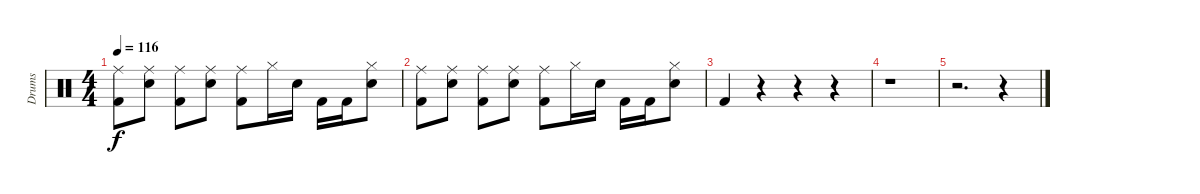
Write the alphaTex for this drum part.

\track ("Drums" "Drums") {instrument percussion}
\staff {score}
\articulation defaults
\ts (4 4)
\tempo 116
\clef neutral
\ks c
("Ride (middle)" "Kick (hit) 2").8{dy f} ("Ride (middle)" "Snare (hit) 2").8 ("Ride (middle)" "Kick (hit) 2").8 ("Ride (middle)" "Snare (hit) 2").8 ("Ride (middle)" "Kick (hit) 2").8 "Hi-Hat (closed)".16 "Snare (hit) 2".16 "Kick (hit) 2".16 "Kick (hit) 2".16 ("Hi-Hat (closed)" "Snare (hit) 2").8 |
("Ride (middle)" "Kick (hit) 2").8 ("Ride (middle)" "Snare (hit) 2").8 ("Ride (middle)" "Kick (hit) 2").8 ("Ride (middle)" "Snare (hit) 2").8 ("Ride (middle)" "Kick (hit) 2").8 "Hi-Hat (closed)".16 "Snare (hit) 2".16 "Kick (hit) 2".16 "Kick (hit) 2".16 ("Hi-Hat (closed)" "Snare (hit) 2").8 |
"Kick (hit) 2".4 r.4 r.4 r.4 |
r.1 |
r.2{d} r.4
